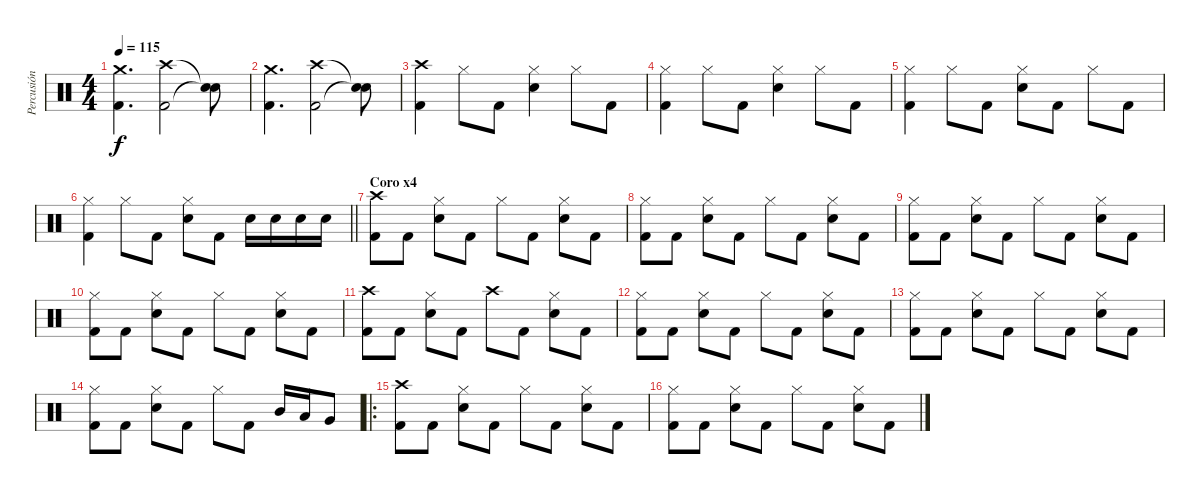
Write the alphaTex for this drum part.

\track ("Percusión" "Percusión") {instrument percussion}
\staff {score}
\articulation defaults
\ts (4 4)
\tempo 115
\clef neutral
\ks c
("Crash medium (hit)" "Kick (hit) 2").4{d dy f} ("Crash high (hit)" "Kick (hit) 2").2 ("Snare (hit)"{t} "Snare (hit)"{t}).8 |
("Crash medium (hit)" "Kick (hit) 2").4{d} ("Crash high (hit)" "Kick (hit) 2").2 ("Snare (hit)"{t} "Snare (hit)"{t}).8 |
("Crash high (hit)" "Kick (hit) 2").4 "Hi-Hat (closed)".8 "Kick (hit) 2".8 ("Hi-Hat (closed)" "Snare (hit) 2").4 "Hi-Hat (closed)".8 "Kick (hit) 2".8 |
("Hi-Hat (closed)" "Kick (hit) 2").4 "Hi-Hat (closed)".8 "Kick (hit) 2".8 ("Hi-Hat (closed)" "Snare (hit) 2").4 "Hi-Hat (closed)".8 "Kick (hit) 2".8 |
("Hi-Hat (closed)" "Kick (hit) 2").4 "Hi-Hat (closed)".8 "Kick (hit) 2".8 ("Hi-Hat (closed)" "Snare (hit) 2").8 "Kick (hit) 2".8 "Hi-Hat (closed)".8 "Kick (hit) 2".8 |
\barLineRight lightlight
("Hi-Hat (closed)" "Kick (hit) 2").4 "Hi-Hat (closed)".8 "Kick (hit) 2".8 ("Hi-Hat (closed)" "Snare (hit) 2").8 "Kick (hit) 2".8 "Snare (hit) 2".16 "Snare (hit) 2".16 "Snare (hit) 2".16 "Snare (hit) 2".16 |
\section ("" "Coro x4")
("Crash high (hit)" "Kick (hit) 2").8 "Kick (hit) 2".8 ("Hi-Hat (closed)" "Snare (hit) 2").8 "Kick (hit) 2".8 "Hi-Hat (closed)".8 "Kick (hit) 2".8 ("Hi-Hat (closed)" "Snare (hit) 2").8 "Kick (hit) 2".8 |
("Hi-Hat (closed)" "Kick (hit) 2").8 "Kick (hit) 2".8 ("Hi-Hat (closed)" "Snare (hit) 2").8 "Kick (hit) 2".8 "Hi-Hat (closed)".8 "Kick (hit) 2".8 ("Hi-Hat (closed)" "Snare (hit) 2").8 "Kick (hit) 2".8 |
("Hi-Hat (closed)" "Kick (hit) 2").8 "Kick (hit) 2".8 ("Hi-Hat (closed)" "Snare (hit) 2").8 "Kick (hit) 2".8 "Hi-Hat (closed)".8 "Kick (hit) 2".8 ("Hi-Hat (closed)" "Snare (hit) 2").8 "Kick (hit) 2".8 |
("Hi-Hat (closed)" "Kick (hit) 2").8 "Kick (hit) 2".8 ("Hi-Hat (closed)" "Snare (hit) 2").8 "Kick (hit) 2".8 "Hi-Hat (closed)".8 "Kick (hit) 2".8 ("Hi-Hat (closed)" "Snare (hit) 2").8 "Kick (hit) 2".8 |
("Crash high (hit)" "Kick (hit) 2").8 "Kick (hit) 2".8 ("Hi-Hat (closed)" "Snare (hit) 2").8 "Kick (hit) 2".8 "Crash high (hit)".8 "Kick (hit) 2".8 ("Hi-Hat (closed)" "Snare (hit) 2").8 "Kick (hit) 2".8 |
("Hi-Hat (closed)" "Kick (hit) 2").8 "Kick (hit) 2".8 ("Hi-Hat (closed)" "Snare (hit) 2").8 "Kick (hit) 2".8 "Hi-Hat (closed)".8 "Kick (hit) 2".8 ("Hi-Hat (closed)" "Snare (hit) 2").8 "Kick (hit) 2".8 |
("Hi-Hat (closed)" "Kick (hit) 2").8 "Kick (hit) 2".8 ("Hi-Hat (closed)" "Snare (hit) 2").8 "Kick (hit) 2".8 "Hi-Hat (closed)".8 "Kick (hit) 2".8 ("Hi-Hat (closed)" "Snare (hit) 2").8 "Kick (hit) 2".8 |
("Hi-Hat (closed)" "Kick (hit) 2").8 "Kick (hit) 2".8 ("Hi-Hat (closed)" "Snare (hit) 2").8 "Kick (hit) 2".8 "Hi-Hat (closed)".8 "Kick (hit) 2".8 "Mid Tom (hit)".16 "Low Tom (hit)".16 "Very Low Tom (hit)".8 |
\ro
("Crash high (hit)" "Kick (hit) 2").8 "Kick (hit) 2".8 ("Hi-Hat (closed)" "Snare (hit) 2").8 "Kick (hit) 2".8 "Hi-Hat (closed)".8 "Kick (hit) 2".8 ("Hi-Hat (closed)" "Snare (hit) 2").8 "Kick (hit) 2".8 |
("Hi-Hat (closed)" "Kick (hit) 2").8 "Kick (hit) 2".8 ("Hi-Hat (closed)" "Snare (hit) 2").8 "Kick (hit) 2".8 "Hi-Hat (closed)".8 "Kick (hit) 2".8 ("Hi-Hat (closed)" "Snare (hit) 2").8 "Kick (hit) 2".8
